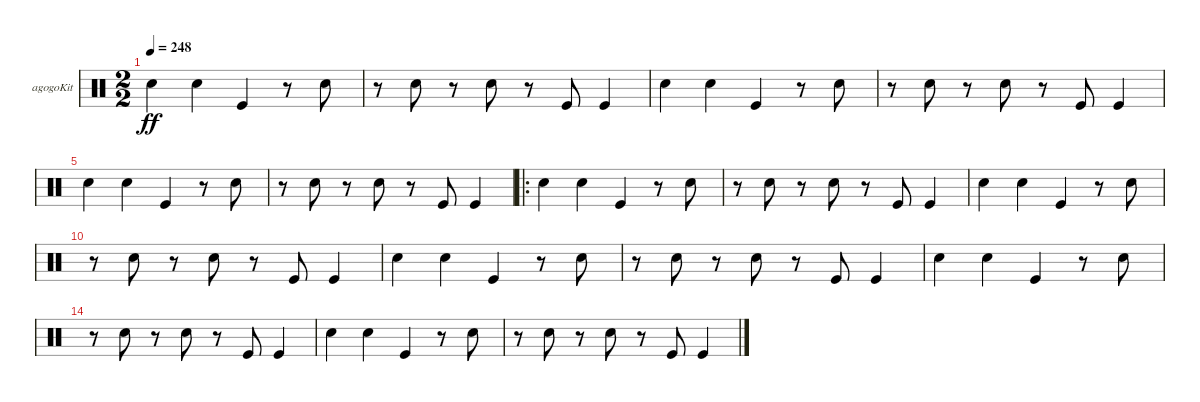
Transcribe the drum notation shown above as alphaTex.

\bracketExtendMode nobrackets
\firstSystemTrackNameOrientation horizontal
\otherSystemsTrackNameOrientation horizontal
\defaultBarNumberDisplay FirstOfSystem
\track ("Agogo" "agogoKit") {instrument percussion}
\staff {score}
\articulation defaults
\ts (2 2)
\tempo 248
\clef neutral
\ks c "Snare (hit) 2".4{dy ff} "Snare (hit) 2".4 "Kick (hit)".4
r.8 "Snare (hit) 2".8 |
r.8 "Snare (hit) 2".8 r.8 "Snare (hit) 2".8 r.8 "Kick (hit)".8 "Kick (hit)".4 |
"Snare (hit) 2".4 "Snare (hit) 2".4 "Kick (hit)".4 r.8 "Snare (hit) 2".8 |
r.8 "Snare (hit) 2".8 r.8 "Snare (hit) 2".8 r.8 "Kick (hit)".8 "Kick (hit)".4 |
"Snare (hit) 2".4 "Snare (hit) 2".4 "Kick (hit)".4 r.8 "Snare (hit) 2".8 |
r.8 "Snare (hit) 2".8 r.8 "Snare (hit) 2".8 r.8 "Kick (hit)".8 "Kick (hit)".4 |
\ro "Snare (hit) 2".4 "Snare (hit) 2".4 "Kick (hit)".4
r.8 "Snare (hit) 2".8 |
r.8 "Snare (hit) 2".8 r.8 "Snare (hit) 2".8 r.8 "Kick (hit)".8 "Kick (hit)".4 |
"Snare (hit) 2".4 "Snare (hit) 2".4 "Kick (hit)".4 r.8 "Snare (hit) 2".8 |
r.8 "Snare (hit) 2".8 r.8 "Snare (hit) 2".8 r.8 "Kick (hit)".8 "Kick (hit)".4 |
"Snare (hit) 2".4 "Snare (hit) 2".4 "Kick (hit)".4 r.8 "Snare (hit) 2".8 |
r.8 "Snare (hit) 2".8 r.8 "Snare (hit) 2".8 r.8 "Kick (hit)".8 "Kick (hit)".4 |
"Snare (hit) 2".4 "Snare (hit) 2".4 "Kick (hit)".4 r.8 "Snare (hit) 2".8 |
r.8 "Snare (hit) 2".8 r.8 "Snare (hit) 2".8 r.8 "Kick (hit)".8 "Kick (hit)".4 |
"Snare (hit) 2".4 "Snare (hit) 2".4 "Kick (hit)".4 r.8 "Snare (hit) 2".8 |
r.8 "Snare (hit) 2".8 r.8 "Snare (hit) 2".8 r.8 "Kick (hit)".8 "Kick (hit)".4
